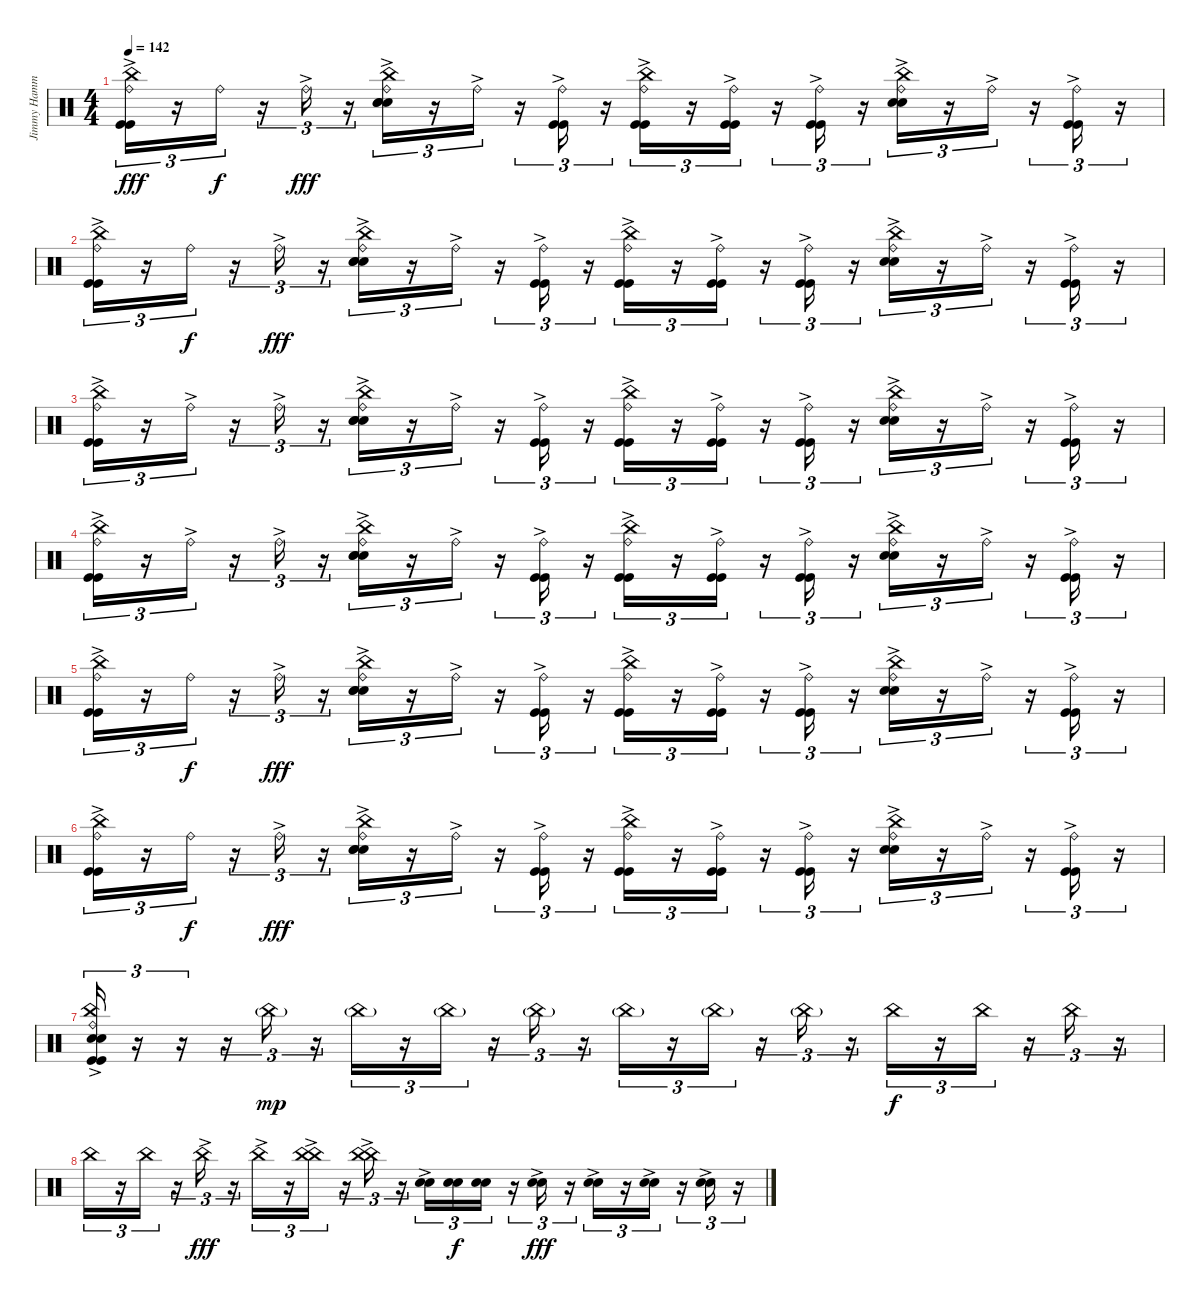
\track ("Jimmy Hammer" "Jimmy Hamm") {instrument percussion}
\staff {score}
\articulation defaults
\ts (4 4)
\tempo 142
\clef neutral
\ks c
("Kick (hit)"{ac} "China (hit)" "Ride (bell)" "Kick (hit)"{ac}).16{tu (3 2) dy fff} r.16{tu (3 2)} "Ride (bell)".16{tu (3 2) dy f} r.16{tu (3 2)} "Ride (bell)"{ac}.16{tu (3 2) dy fff} r.16{tu (3 2)} ("China (hit)" "Electric Snare (hit)" "Electric Snare (hit)" "Electric Snare (hit)" "Ride (bell)"{ac}).16{tu (3 2)} r.16{tu (3 2)} "Ride (bell)"{ac}.16{tu (3 2)} r.16{tu (3 2)} ("Kick (hit)"{ac} "Kick (hit)"{ac} "Ride (bell)"{ac}).16{tu (3 2)} r.16{tu (3 2)} ("China (hit)" "Kick (hit)"{ac} "Kick (hit)"{ac} "Ride (bell)"{ac}).16{tu (3 2)} r.16{tu (3 2)} ("Kick (hit)"{ac} "Kick (hit)"{ac} "Ride (bell)"{ac}).16{tu (3 2)} r.16{tu (3 2)} ("Kick (hit)"{ac} "Kick (hit)"{ac} "Ride (bell)"{ac}).16{tu (3 2)} r.16{tu (3 2)} ("Electric Snare (hit)" "Electric Snare (hit)" "China (hit)" "Ride (bell)"{ac}).16{tu (3 2)} r.16{tu (3 2)} "Ride (bell)"{ac}.16{tu (3 2)} r.16{tu (3 2)} ("Kick (hit)"{ac} "Kick (hit)"{ac} "Ride (bell)"{ac}).16{tu (3 2)} r.16{tu (3 2)} |
("Kick (hit)"{ac} "China (hit)" "Ride (bell)" "Kick (hit)"{ac}).16{tu (3 2)} r.16{tu (3 2)} "Ride (bell)".16{tu (3 2) dy f} r.16{tu (3 2)} "Ride (bell)"{ac}.16{tu (3 2) dy fff} r.16{tu (3 2)} ("China (hit)" "Electric Snare (hit)" "Electric Snare (hit)" "Electric Snare (hit)" "Ride (bell)"{ac}).16{tu (3 2)} r.16{tu (3 2)} "Ride (bell)"{ac}.16{tu (3 2)} r.16{tu (3 2)} ("Kick (hit)"{ac} "Kick (hit)"{ac} "Ride (bell)"{ac}).16{tu (3 2)} r.16{tu (3 2)} ("China (hit)" "Kick (hit)"{ac} "Kick (hit)"{ac} "Ride (bell)"{ac}).16{tu (3 2)} r.16{tu (3 2)} ("Kick (hit)"{ac} "Kick (hit)"{ac} "Ride (bell)"{ac}).16{tu (3 2)} r.16{tu (3 2)} ("Kick (hit)"{ac} "Kick (hit)"{ac} "Ride (bell)"{ac}).16{tu (3 2)} r.16{tu (3 2)} ("Electric Snare (hit)" "Electric Snare (hit)" "China (hit)" "Ride (bell)"{ac}).16{tu (3 2)} r.16{tu (3 2)} "Ride (bell)"{ac}.16{tu (3 2)} r.16{tu (3 2)} ("Kick (hit)"{ac} "Kick (hit)"{ac} "Ride (bell)"{ac}).16{tu (3 2)} r.16{tu (3 2)} |
("Kick (hit)"{ac} "China (hit)" "Ride (bell)"{ac} "Kick (hit)"{ac}).16{tu (3 2)} r.16{tu (3 2)} "Ride (bell)"{ac}.16{tu (3 2)} r.16{tu (3 2)} "Ride (bell)"{ac}.16{tu (3 2)} r.16{tu (3 2)} ("China (hit)" "Electric Snare (hit)" "Electric Snare (hit)" "Electric Snare (hit)" "Ride (bell)"{ac}).16{tu (3 2)} r.16{tu (3 2)} "Ride (bell)"{ac}.16{tu (3 2)} r.16{tu (3 2)} ("Kick (hit)"{ac} "Kick (hit)"{ac} "Ride (bell)"{ac}).16{tu (3 2)} r.16{tu (3 2)} ("China (hit)" "Kick (hit)"{ac} "Kick (hit)"{ac} "Ride (bell)"{ac}).16{tu (3 2)} r.16{tu (3 2)} ("Kick (hit)"{ac} "Kick (hit)"{ac} "Ride (bell)"{ac}).16{tu (3 2)} r.16{tu (3 2)} ("Kick (hit)"{ac} "Kick (hit)"{ac} "Ride (bell)"{ac}).16{tu (3 2)} r.16{tu (3 2)} ("Electric Snare (hit)" "Electric Snare (hit)" "China (hit)" "Ride (bell)"{ac}).16{tu (3 2)} r.16{tu (3 2)} "Ride (bell)"{ac}.16{tu (3 2)} r.16{tu (3 2)} ("Kick (hit)"{ac} "Kick (hit)"{ac} "Ride (bell)"{ac}).16{tu (3 2)} r.16{tu (3 2)} |
("Kick (hit)"{ac} "China (hit)" "Ride (bell)"{ac} "Kick (hit)"{ac}).16{tu (3 2)} r.16{tu (3 2)} "Ride (bell)"{ac}.16{tu (3 2)} r.16{tu (3 2)} "Ride (bell)"{ac}.16{tu (3 2)} r.16{tu (3 2)} ("China (hit)" "Electric Snare (hit)" "Electric Snare (hit)" "Electric Snare (hit)" "Ride (bell)"{ac}).16{tu (3 2)} r.16{tu (3 2)} "Ride (bell)"{ac}.16{tu (3 2)} r.16{tu (3 2)} ("Kick (hit)"{ac} "Kick (hit)"{ac} "Ride (bell)"{ac}).16{tu (3 2)} r.16{tu (3 2)} ("China (hit)" "Kick (hit)"{ac} "Kick (hit)"{ac} "Ride (bell)"{ac}).16{tu (3 2)} r.16{tu (3 2)} ("Kick (hit)"{ac} "Kick (hit)"{ac} "Ride (bell)"{ac}).16{tu (3 2)} r.16{tu (3 2)} ("Kick (hit)"{ac} "Kick (hit)"{ac} "Ride (bell)"{ac}).16{tu (3 2)} r.16{tu (3 2)} ("Electric Snare (hit)" "Electric Snare (hit)" "China (hit)" "Ride (bell)"{ac}).16{tu (3 2)} r.16{tu (3 2)} "Ride (bell)"{ac}.16{tu (3 2)} r.16{tu (3 2)} ("Kick (hit)"{ac} "Kick (hit)"{ac} "Ride (bell)"{ac}).16{tu (3 2)} r.16{tu (3 2)} |
("Kick (hit)"{ac} "China (hit)" "Ride (bell)" "Kick (hit)"{ac}).16{tu (3 2)} r.16{tu (3 2)} "Ride (bell)".16{tu (3 2) dy f} r.16{tu (3 2)} "Ride (bell)"{ac}.16{tu (3 2) dy fff} r.16{tu (3 2)} ("China (hit)" "Electric Snare (hit)" "Electric Snare (hit)" "Electric Snare (hit)" "Ride (bell)"{ac}).16{tu (3 2)} r.16{tu (3 2)} "Ride (bell)"{ac}.16{tu (3 2)} r.16{tu (3 2)} ("Kick (hit)"{ac} "Kick (hit)"{ac} "Ride (bell)"{ac}).16{tu (3 2)} r.16{tu (3 2)} ("China (hit)" "Kick (hit)"{ac} "Kick (hit)"{ac} "Ride (bell)"{ac}).16{tu (3 2)} r.16{tu (3 2)} ("Kick (hit)"{ac} "Kick (hit)"{ac} "Ride (bell)"{ac}).16{tu (3 2)} r.16{tu (3 2)} ("Kick (hit)"{ac} "Kick (hit)"{ac} "Ride (bell)"{ac}).16{tu (3 2)} r.16{tu (3 2)} ("Electric Snare (hit)" "Electric Snare (hit)" "China (hit)" "Ride (bell)"{ac}).16{tu (3 2)} r.16{tu (3 2)} "Ride (bell)"{ac}.16{tu (3 2)} r.16{tu (3 2)} ("Kick (hit)"{ac} "Kick (hit)"{ac} "Ride (bell)"{ac}).16{tu (3 2)} r.16{tu (3 2)} |
("Kick (hit)"{ac} "China (hit)" "Ride (bell)" "Kick (hit)"{ac}).16{tu (3 2)} r.16{tu (3 2)} "Ride (bell)".16{tu (3 2) dy f} r.16{tu (3 2)} "Ride (bell)"{ac}.16{tu (3 2) dy fff} r.16{tu (3 2)} ("China (hit)" "Electric Snare (hit)" "Electric Snare (hit)" "Electric Snare (hit)" "Ride (bell)"{ac}).16{tu (3 2)} r.16{tu (3 2)} "Ride (bell)"{ac}.16{tu (3 2)} r.16{tu (3 2)} ("Kick (hit)"{ac} "Kick (hit)"{ac} "Ride (bell)"{ac}).16{tu (3 2)} r.16{tu (3 2)} ("China (hit)" "Kick (hit)"{ac} "Kick (hit)"{ac} "Ride (bell)"{ac}).16{tu (3 2)} r.16{tu (3 2)} ("Kick (hit)"{ac} "Kick (hit)"{ac} "Ride (bell)"{ac}).16{tu (3 2)} r.16{tu (3 2)} ("Kick (hit)"{ac} "Kick (hit)"{ac} "Ride (bell)"{ac}).16{tu (3 2)} r.16{tu (3 2)} ("Electric Snare (hit)" "Electric Snare (hit)" "China (hit)" "Ride (bell)"{ac}).16{tu (3 2)} r.16{tu (3 2)} "Ride (bell)"{ac}.16{tu (3 2)} r.16{tu (3 2)} ("Kick (hit)"{ac} "Kick (hit)"{ac} "Ride (bell)"{ac}).16{tu (3 2)} r.16{tu (3 2)} |
("Electric Snare (hit)"{ac} "Kick (hit)"{ac} "Electric Snare (hit)"{ac} "China (hit)"{ac} "Ride (bell)"{ac} "Kick (hit)"{ac}).16{tu (3 2)} r.16{tu (3 2)} r.16{tu (3 2)} r.16{tu (3 2)} "China (hit)"{g}.16{tu (3 2) dy mp} r.16{tu (3 2)} "China (hit)"{g}.16{tu (3 2)} r.16{tu (3 2)} "China (hit)"{g}.16{tu (3 2)} r.16{tu (3 2)} "China (hit)"{g}.16{tu (3 2)} r.16{tu (3 2)} "China (hit)"{g}.16{tu (3 2)} r.16{tu (3 2)} "China (hit)"{g}.16{tu (3 2)} r.16{tu (3 2)} "China (hit)"{g}.16{tu (3 2)} r.16{tu (3 2)} "China (hit)".16{tu (3 2) dy f} r.16{tu (3 2)} "China (hit)".16{tu (3 2)} r.16{tu (3 2)} "China (hit)".16{tu (3 2)} r.16{tu (3 2)} |
"China (hit)".16{tu (3 2)} r.16{tu (3 2)} "China (hit)".16{tu (3 2)} r.16{tu (3 2)} "China (hit)"{ac}.16{tu (3 2) dy fff} r.16{tu (3 2)} "China (hit)"{ac}.16{tu (3 2)} r.16{tu (3 2)} ("China (hit)"{ac} "China (hit)").16{tu (3 2)} r.16{tu (3 2)} ("China (hit)"{ac} "China (hit)").16{tu (3 2)} r.16{tu (3 2)} ("Electric Snare (hit)"{ac} "Electric Snare (hit)").16{tu (3 2)} ("Electric Snare (hit)" "Electric Snare (hit)").16{tu (3 2) dy f} ("Electric Snare (hit)" "Electric Snare (hit)").16{tu (3 2)} r.16{tu (3 2)} ("Electric Snare (hit)"{ac} "Electric Snare (hit)").16{tu (3 2) dy fff} r.16{tu (3 2)} ("Electric Snare (hit)"{ac} "Electric Snare (hit)").16{tu (3 2)} r.16{tu (3 2)} ("Electric Snare (hit)"{ac} "Electric Snare (hit)"{ac}).16{tu (3 2)} r.16{tu (3 2)} ("Electric Snare (hit)"{ac} "Electric Snare (hit)"{ac}).16{tu (3 2)} r.16{tu (3 2)}
